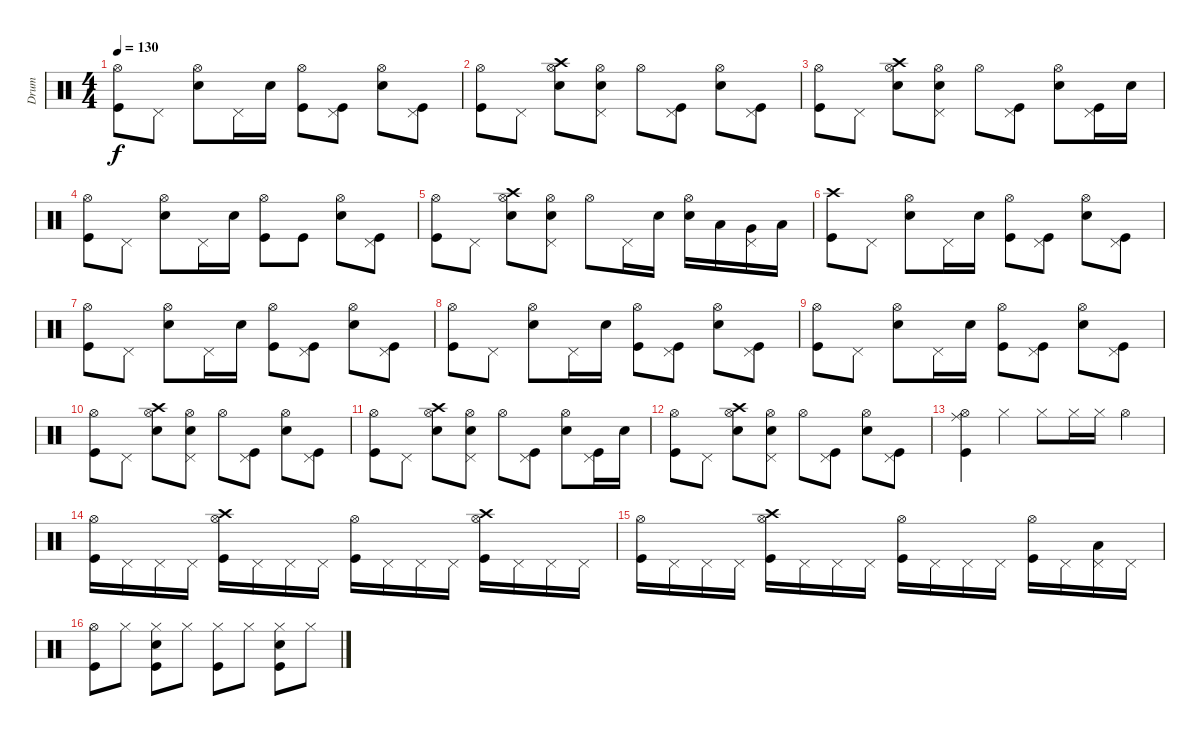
\track ("Drum" "Drum") {instrument percussion}
\staff {score}
\articulation defaults
\ts (4 4)
\tempo 130
\clef neutral
\ks c
("Kick (hit)" "Hi-Hat (open)").8{dy f} "Pedal Hi-Hat (hit)".8 ("Snare (hit) 2" "Hi-Hat (open)").8 "Pedal Hi-Hat (hit)".16 "Snare (hit) 2".16 ("Kick (hit)" "Hi-Hat (open)").8 ("Kick (hit)" "Pedal Hi-Hat (hit)").8 ("Snare (hit) 2" "Hi-Hat (open)").8 ("Kick (hit)" "Pedal Hi-Hat (hit)").8 |
("Kick (hit)" "Hi-Hat (open)").8 "Pedal Hi-Hat (hit)".8 ("Snare (hit) 2" "Hi-Hat (open)" "Crash high (hit)").8 ("Snare (hit) 2" "Hi-Hat (open)" "Pedal Hi-Hat (hit)").8 "Hi-Hat (open)".8 ("Kick (hit)" "Pedal Hi-Hat (hit)").8 ("Hi-Hat (open)" "Snare (hit) 2").8 ("Kick (hit)" "Pedal Hi-Hat (hit)").8 |
("Kick (hit)" "Hi-Hat (open)").8 "Pedal Hi-Hat (hit)".8 ("Snare (hit) 2" "Hi-Hat (open)" "Crash high (hit)").8 ("Snare (hit) 2" "Hi-Hat (open)" "Pedal Hi-Hat (hit)").8 "Hi-Hat (open)".8 ("Kick (hit)" "Pedal Hi-Hat (hit)").8 ("Hi-Hat (open)" "Snare (hit) 2").8 ("Kick (hit)" "Pedal Hi-Hat (hit)").16 "Snare (hit) 2".16 |
("Kick (hit)" "Hi-Hat (open)").8 "Pedal Hi-Hat (hit)".8 ("Snare (hit) 2" "Hi-Hat (open)").8 "Pedal Hi-Hat (hit)".16 "Snare (hit) 2".16 ("Kick (hit)" "Hi-Hat (open)").8 "Kick (hit)".8 ("Snare (hit) 2" "Hi-Hat (open)").8 ("Kick (hit)" "Pedal Hi-Hat (hit)").8 |
("Kick (hit)" "Hi-Hat (open)").8 "Pedal Hi-Hat (hit)".8 ("Snare (hit) 2" "Hi-Hat (open)" "Crash high (hit)").8 ("Snare (hit) 2" "Hi-Hat (open)" "Pedal Hi-Hat (hit)").8 "Hi-Hat (open)".8 "Pedal Hi-Hat (hit)".16 "Snare (hit) 2".16 ("Hi-Hat (open)" "Snare (hit) 2").16 "Low Tom (hit)".16 ("Pedal Hi-Hat (hit)" "Very Low Tom (hit)").16 "Low Floor Tom (hit)".16 |
("Kick (hit)" "Crash high (hit)").8 "Pedal Hi-Hat (hit)".8 ("Snare (hit) 2" "Hi-Hat (open)").8 "Pedal Hi-Hat (hit)".16 "Snare (hit) 2".16 ("Kick (hit)" "Hi-Hat (open)").8 ("Kick (hit)" "Pedal Hi-Hat (hit)").8 ("Snare (hit) 2" "Hi-Hat (open)").8 ("Kick (hit)" "Pedal Hi-Hat (hit)").8 |
("Kick (hit)" "Hi-Hat (open)").8 "Pedal Hi-Hat (hit)".8 ("Snare (hit) 2" "Hi-Hat (open)").8 "Pedal Hi-Hat (hit)".16 "Snare (hit) 2".16 ("Kick (hit)" "Hi-Hat (open)").8 ("Kick (hit)" "Pedal Hi-Hat (hit)").8 ("Snare (hit) 2" "Hi-Hat (open)").8 ("Kick (hit)" "Pedal Hi-Hat (hit)").8 |
("Kick (hit)" "Hi-Hat (open)").8 "Pedal Hi-Hat (hit)".8 ("Snare (hit) 2" "Hi-Hat (open)").8 "Pedal Hi-Hat (hit)".16 "Snare (hit) 2".16 ("Kick (hit)" "Hi-Hat (open)").8 ("Kick (hit)" "Pedal Hi-Hat (hit)").8 ("Snare (hit) 2" "Hi-Hat (open)").8 ("Kick (hit)" "Pedal Hi-Hat (hit)").8 |
("Kick (hit)" "Hi-Hat (open)").8 "Pedal Hi-Hat (hit)".8 ("Snare (hit) 2" "Hi-Hat (open)").8 "Pedal Hi-Hat (hit)".16 "Snare (hit) 2".16 ("Kick (hit)" "Hi-Hat (open)").8 ("Kick (hit)" "Pedal Hi-Hat (hit)").8 ("Snare (hit) 2" "Hi-Hat (open)").8 ("Kick (hit)" "Pedal Hi-Hat (hit)").8 |
("Kick (hit)" "Hi-Hat (open)").8 "Pedal Hi-Hat (hit)".8 ("Snare (hit) 2" "Hi-Hat (open)" "Crash high (hit)").8 ("Snare (hit) 2" "Hi-Hat (open)" "Pedal Hi-Hat (hit)").8 "Hi-Hat (open)".8 ("Kick (hit)" "Pedal Hi-Hat (hit)").8 ("Hi-Hat (open)" "Snare (hit) 2").8 ("Kick (hit)" "Pedal Hi-Hat (hit)").8 |
("Kick (hit)" "Hi-Hat (open)").8 "Pedal Hi-Hat (hit)".8 ("Snare (hit) 2" "Hi-Hat (open)" "Crash high (hit)").8 ("Snare (hit) 2" "Hi-Hat (open)" "Pedal Hi-Hat (hit)").8 "Hi-Hat (open)".8 ("Kick (hit)" "Pedal Hi-Hat (hit)").8 ("Hi-Hat (open)" "Snare (hit) 2").8 ("Kick (hit)" "Pedal Hi-Hat (hit)").16 "Snare (hit) 2".16 |
("Kick (hit)" "Hi-Hat (open)").8 "Pedal Hi-Hat (hit)".8 ("Snare (hit) 2" "Hi-Hat (open)" "Crash high (hit)").8 ("Snare (hit) 2" "Hi-Hat (open)" "Pedal Hi-Hat (hit)").8 "Hi-Hat (open)".8 ("Kick (hit)" "Pedal Hi-Hat (hit)").8 ("Hi-Hat (open)" "Snare (hit) 2").8 ("Kick (hit)" "Pedal Hi-Hat (hit)").8 |
("Kick (hit)" "Hi-Hat (open)" "Ride (middle)").4 "Hi-Hat (closed)".4 "Hi-Hat (closed)".8 "Hi-Hat (closed)".16 "Hi-Hat (closed)".16 "Hi-Hat (open)".4 |
("Kick (hit)" "Hi-Hat (open)").16 "Pedal Hi-Hat (hit)".16 "Pedal Hi-Hat (hit)".16 "Pedal Hi-Hat (hit)".16 ("Kick (hit)" "Hi-Hat (open)" "Crash high (hit)").16 "Pedal Hi-Hat (hit)".16 "Pedal Hi-Hat (hit)".16 "Pedal Hi-Hat (hit)".16 ("Kick (hit)" "Hi-Hat (open)").16 "Pedal Hi-Hat (hit)".16 "Pedal Hi-Hat (hit)".16 "Pedal Hi-Hat (hit)".16 ("Kick (hit)" "Hi-Hat (open)" "Crash high (hit)").16 "Pedal Hi-Hat (hit)".16 "Pedal Hi-Hat (hit)".16 "Pedal Hi-Hat (hit)".16 |
("Kick (hit)" "Hi-Hat (open)").16 "Pedal Hi-Hat (hit)".16 "Pedal Hi-Hat (hit)".16 "Pedal Hi-Hat (hit)".16 ("Kick (hit)" "Hi-Hat (open)" "Crash high (hit)").16 "Pedal Hi-Hat (hit)".16 "Pedal Hi-Hat (hit)".16 "Pedal Hi-Hat (hit)".16 ("Kick (hit)" "Hi-Hat (open)").16 "Pedal Hi-Hat (hit)".16 "Pedal Hi-Hat (hit)".16 "Pedal Hi-Hat (hit)".16 ("Kick (hit)" "Hi-Hat (open)").16 "Pedal Hi-Hat (hit)".16 ("Low Floor Tom (hit)" "Pedal Hi-Hat (hit)").16 "Pedal Hi-Hat (hit)".16 |
("Kick (hit)" "Hi-Hat (open)").8 "Hi-Hat (closed)".8 ("Kick (hit)" "Snare (hit) 2" "Hi-Hat (closed)").8 "Hi-Hat (closed)".8 ("Hi-Hat (closed)" "Kick (hit)").8 "Hi-Hat (closed)".8 ("Kick (hit)" "Snare (hit) 2" "Hi-Hat (closed)").8 "Hi-Hat (closed)".8
